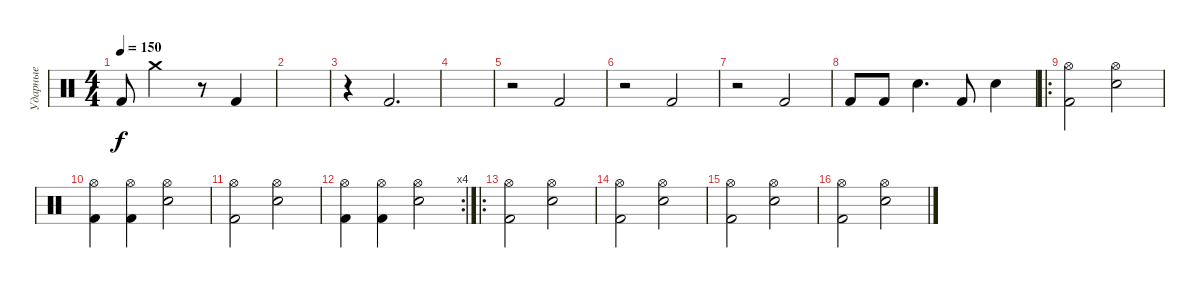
\track ("Ударные" "Ударные") {instrument percussion}
\staff {score}
\articulation defaults
\ts (4 4)
\tempo 150
\clef neutral
\ks c "Kick (hit) 2".8{dy f} "Crash medium (hit)".2
r.8 "Kick (hit) 2".4 |
|
r.4 "Kick (hit) 2".2{d} |
|
r.2 "Kick (hit) 2".2 |
r.2 "Kick (hit) 2".2 |
r.2 "Kick (hit) 2".2 |
"Kick (hit) 2".8 "Kick (hit) 2".8 "Electric Snare (hit)".4{d} "Kick (hit) 2".8 "Electric Snare (hit)".4 |
\ro
("Kick (hit) 2" "Hi-Hat (open)").2 ("Electric Snare (hit)" "Hi-Hat (open)").2 |
("Kick (hit) 2" "Hi-Hat (open)").4 ("Kick (hit) 2" "Hi-Hat (open)").4 ("Electric Snare (hit)" "Hi-Hat (open)").2 |
("Kick (hit) 2" "Hi-Hat (open)").2 ("Electric Snare (hit)" "Hi-Hat (open)").2 |
\rc 4
("Kick (hit) 2" "Hi-Hat (open)").4 ("Kick (hit) 2" "Hi-Hat (open)").4 ("Electric Snare (hit)" "Hi-Hat (open)").2 |
\ro
("Kick (hit) 2" "Hi-Hat (open)").2 ("Electric Snare (hit)" "Hi-Hat (open)").2 |
("Kick (hit) 2" "Hi-Hat (open)").2 ("Electric Snare (hit)" "Hi-Hat (open)").2 |
("Kick (hit) 2" "Hi-Hat (open)").2 ("Electric Snare (hit)" "Hi-Hat (open)").2 |
("Kick (hit) 2" "Hi-Hat (open)").2 ("Electric Snare (hit)" "Hi-Hat (open)").2
